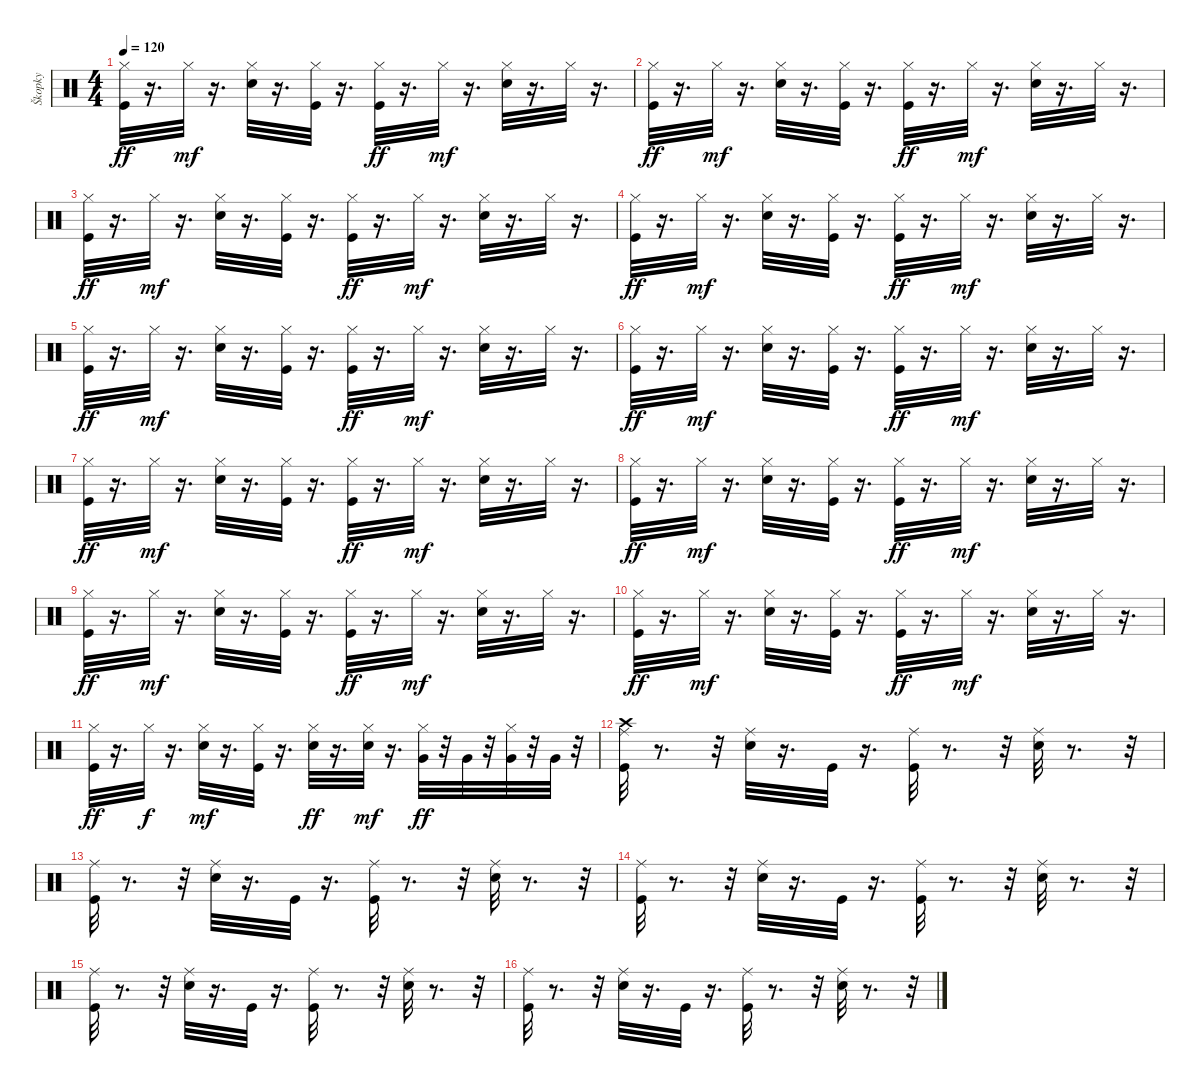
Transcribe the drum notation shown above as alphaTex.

\track ("Škopky" "Škopky") {instrument percussion}
\staff {score}
\articulation defaults
\ts (4 4)
\tempo 120
\clef neutral
\ks c
("Kick (hit)" "Hi-Hat (closed)").32{dy ff} r.16{d} "Hi-Hat (closed)".32{dy mf} r.16{d} ("Snare (hit) 2" "Hi-Hat (closed)").32 r.16{d} ("Kick (hit)" "Hi-Hat (closed)").32 r.16{d} ("Kick (hit)" "Hi-Hat (closed)").32{dy ff} r.16{d} "Hi-Hat (closed)".32{dy mf} r.16{d} ("Snare (hit) 2" "Hi-Hat (closed)").32 r.16{d} "Hi-Hat (closed)".32 r.16{d} |
("Kick (hit)" "Hi-Hat (closed)").32{dy ff} r.16{d} "Hi-Hat (closed)".32{dy mf} r.16{d} ("Snare (hit) 2" "Hi-Hat (closed)").32 r.16{d} ("Kick (hit)" "Hi-Hat (closed)").32 r.16{d} ("Kick (hit)" "Hi-Hat (closed)").32{dy ff} r.16{d} "Hi-Hat (closed)".32{dy mf} r.16{d} ("Snare (hit) 2" "Hi-Hat (closed)").32 r.16{d} "Hi-Hat (closed)".32 r.16{d} |
("Kick (hit)" "Hi-Hat (closed)").32{dy ff} r.16{d} "Hi-Hat (closed)".32{dy mf} r.16{d} ("Snare (hit) 2" "Hi-Hat (closed)").32 r.16{d} ("Kick (hit)" "Hi-Hat (closed)").32 r.16{d} ("Kick (hit)" "Hi-Hat (closed)").32{dy ff} r.16{d} "Hi-Hat (closed)".32{dy mf} r.16{d} ("Snare (hit) 2" "Hi-Hat (closed)").32 r.16{d} "Hi-Hat (closed)".32 r.16{d} |
("Kick (hit)" "Hi-Hat (closed)").32{dy ff} r.16{d} "Hi-Hat (closed)".32{dy mf} r.16{d} ("Snare (hit) 2" "Hi-Hat (closed)").32 r.16{d} ("Kick (hit)" "Hi-Hat (closed)").32 r.16{d} ("Kick (hit)" "Hi-Hat (closed)").32{dy ff} r.16{d} "Hi-Hat (closed)".32{dy mf} r.16{d} ("Snare (hit) 2" "Hi-Hat (closed)").32 r.16{d} "Hi-Hat (closed)".32 r.16{d} |
("Kick (hit)" "Hi-Hat (closed)").32{dy ff} r.16{d} "Hi-Hat (closed)".32{dy mf} r.16{d} ("Snare (hit) 2" "Hi-Hat (closed)").32 r.16{d} ("Kick (hit)" "Hi-Hat (closed)").32 r.16{d} ("Kick (hit)" "Hi-Hat (closed)").32{dy ff} r.16{d} "Hi-Hat (closed)".32{dy mf} r.16{d} ("Snare (hit) 2" "Hi-Hat (closed)").32 r.16{d} "Hi-Hat (closed)".32 r.16{d} |
("Kick (hit)" "Hi-Hat (closed)").32{dy ff} r.16{d} "Hi-Hat (closed)".32{dy mf} r.16{d} ("Snare (hit) 2" "Hi-Hat (closed)").32 r.16{d} ("Kick (hit)" "Hi-Hat (closed)").32 r.16{d} ("Kick (hit)" "Hi-Hat (closed)").32{dy ff} r.16{d} "Hi-Hat (closed)".32{dy mf} r.16{d} ("Snare (hit) 2" "Hi-Hat (closed)").32 r.16{d} "Hi-Hat (closed)".32 r.16{d} |
("Kick (hit)" "Hi-Hat (closed)").32{dy ff} r.16{d} "Hi-Hat (closed)".32{dy mf} r.16{d} ("Snare (hit) 2" "Hi-Hat (closed)").32 r.16{d} ("Kick (hit)" "Hi-Hat (closed)").32 r.16{d} ("Kick (hit)" "Hi-Hat (closed)").32{dy ff} r.16{d} "Hi-Hat (closed)".32{dy mf} r.16{d} ("Snare (hit) 2" "Hi-Hat (closed)").32 r.16{d} "Hi-Hat (closed)".32 r.16{d} |
("Kick (hit)" "Hi-Hat (closed)").32{dy ff} r.16{d} "Hi-Hat (closed)".32{dy mf} r.16{d} ("Snare (hit) 2" "Hi-Hat (closed)").32 r.16{d} ("Kick (hit)" "Hi-Hat (closed)").32 r.16{d} ("Kick (hit)" "Hi-Hat (closed)").32{dy ff} r.16{d} "Hi-Hat (closed)".32{dy mf} r.16{d} ("Snare (hit) 2" "Hi-Hat (closed)").32 r.16{d} "Hi-Hat (closed)".32 r.16{d} |
("Kick (hit)" "Hi-Hat (closed)").32{dy ff} r.16{d} "Hi-Hat (closed)".32{dy mf} r.16{d} ("Snare (hit) 2" "Hi-Hat (closed)").32 r.16{d} ("Kick (hit)" "Hi-Hat (closed)").32 r.16{d} ("Kick (hit)" "Hi-Hat (closed)").32{dy ff} r.16{d} "Hi-Hat (closed)".32{dy mf} r.16{d} ("Snare (hit) 2" "Hi-Hat (closed)").32 r.16{d} "Hi-Hat (closed)".32 r.16{d} |
("Kick (hit)" "Hi-Hat (closed)").32{dy ff} r.16{d} "Hi-Hat (closed)".32{dy mf} r.16{d} ("Snare (hit) 2" "Hi-Hat (closed)").32 r.16{d} ("Kick (hit)" "Hi-Hat (closed)").32 r.16{d} ("Kick (hit)" "Hi-Hat (closed)").32{dy ff} r.16{d} "Hi-Hat (closed)".32{dy mf} r.16{d} ("Snare (hit) 2" "Hi-Hat (closed)").32 r.16{d} "Hi-Hat (closed)".32 r.16{d} |
("Kick (hit)" "Hi-Hat (closed)").32{dy ff} r.16{d} "Hi-Hat (closed)".32{dy f} r.16{d} ("Snare (hit) 2" "Hi-Hat (closed)").32{dy mf} r.16{d} ("Kick (hit)" "Hi-Hat (closed)").32 r.16{d} ("Snare (hit) 2" "Hi-Hat (closed)").32{dy ff} r.16{d} ("Snare (hit) 2" "Hi-Hat (closed)").32{dy mf} r.16{d} ("Hi-Hat (closed)" "Very Low Tom (hit)").32{dy ff} r.32 "Very Low Tom (hit)".32 r.32 ("Hi-Hat (closed)" "Very Low Tom (hit)").32 r.32 "Very Low Tom (hit)".32 r.32 |
("Kick (hit)" "Crash high (hit)" "Ride (middle)").32 r.8{d} r.32 ("Snare (hit) 2" "Ride (middle)").32 r.16{d} "Kick (hit)".32 r.16{d} ("Kick (hit)" "Ride (middle)").32 r.8{d} r.32 ("Snare (hit) 2" "Ride (middle)").32 r.8{d} r.32 |
("Kick (hit)" "Ride (middle)").32 r.8{d} r.32 ("Snare (hit) 2" "Ride (middle)").32 r.16{d} "Kick (hit)".32 r.16{d} ("Kick (hit)" "Ride (middle)").32 r.8{d} r.32 ("Snare (hit) 2" "Ride (middle)").32 r.8{d} r.32 |
("Kick (hit)" "Ride (middle)").32 r.8{d} r.32 ("Snare (hit) 2" "Ride (middle)").32 r.16{d} "Kick (hit)".32 r.16{d} ("Kick (hit)" "Ride (middle)").32 r.8{d} r.32 ("Snare (hit) 2" "Ride (middle)").32 r.8{d} r.32 |
("Kick (hit)" "Ride (middle)").32 r.8{d} r.32 ("Snare (hit) 2" "Ride (middle)").32 r.16{d} "Kick (hit)".32 r.16{d} ("Kick (hit)" "Ride (middle)").32 r.8{d} r.32 ("Snare (hit) 2" "Ride (middle)").32 r.8{d} r.32 |
("Kick (hit)" "Ride (middle)").32 r.8{d} r.32 ("Snare (hit) 2" "Ride (middle)").32 r.16{d} "Kick (hit)".32 r.16{d} ("Kick (hit)" "Ride (middle)").32 r.8{d} r.32 ("Snare (hit) 2" "Ride (middle)").32 r.8{d} r.32
